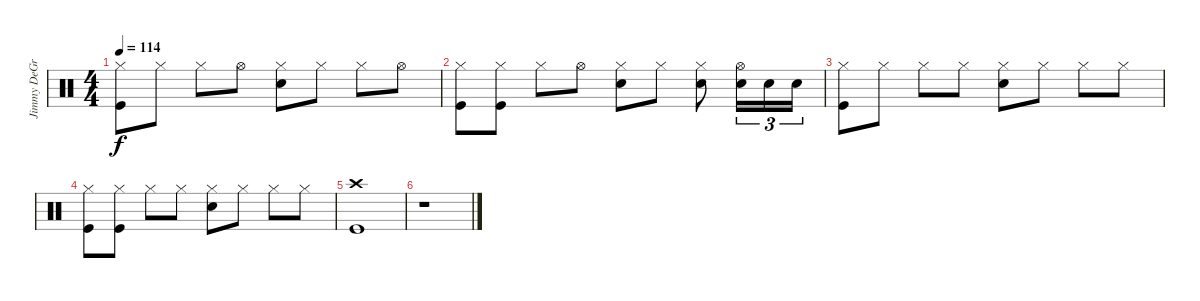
\track ("Jimmy DeGrasso" "Jimmy DeGr") {instrument percussion}
\staff {score}
\articulation defaults
\ts (4 4)
\tempo 114
\clef neutral
\ks c
("Hi-Hat (closed)" "Kick (hit)").8{dy f} "Hi-Hat (closed)".8 "Hi-Hat (closed)".8 "Hi-Hat (open)".8 ("Hi-Hat (closed)" "Snare (hit) 2").8 "Hi-Hat (closed)".8 "Hi-Hat (closed)".8 "Hi-Hat (open)".8 |
("Hi-Hat (closed)" "Kick (hit)").8 ("Hi-Hat (closed)" "Kick (hit)").8 "Hi-Hat (closed)".8 "Hi-Hat (open)".8 ("Hi-Hat (closed)" "Snare (hit) 2").8 "Hi-Hat (closed)".8 ("Hi-Hat (closed)" "Snare (hit) 2").8 ("Hi-Hat (open)" "Snare (hit) 2").16{tu (3 2)} "Snare (hit) 2".16{tu (3 2)} "Snare (hit) 2".16{tu (3 2)} |
("Hi-Hat (closed)" "Kick (hit)").8 "Hi-Hat (closed)".8 "Hi-Hat (closed)".8 "Hi-Hat (closed)".8 ("Hi-Hat (closed)" "Snare (hit) 2").8 "Hi-Hat (closed)".8 "Hi-Hat (closed)".8 "Hi-Hat (closed)".8 |
("Hi-Hat (closed)" "Kick (hit)").8 ("Hi-Hat (closed)" "Kick (hit)").8 "Hi-Hat (closed)".8 "Hi-Hat (closed)".8 ("Hi-Hat (closed)" "Snare (hit) 2").8 "Hi-Hat (closed)".8 "Hi-Hat (closed)".8 "Hi-Hat (closed)".8 |
("Crash high (hit)" "Kick (hit)").1 |
r.1
